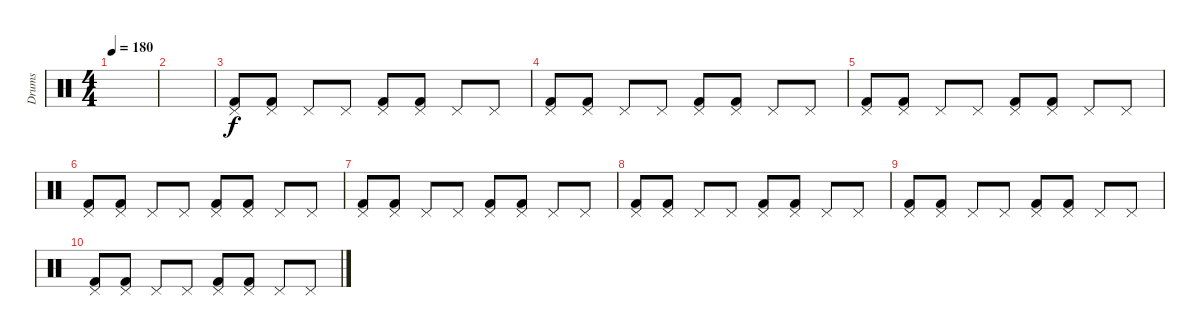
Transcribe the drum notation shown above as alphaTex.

\track ("Drums" "Drums") {instrument percussion}
\staff {score}
\articulation defaults
\ts (4 4)
\tempo 180
\clef neutral
\ks c
|
|
("Pedal Hi-Hat (hit)" "Kick (hit) 2").8 ("Pedal Hi-Hat (hit)" "Kick (hit) 2").8 "Pedal Hi-Hat (hit)".8 "Pedal Hi-Hat (hit)".8 ("Pedal Hi-Hat (hit)" "Kick (hit) 2").8 ("Pedal Hi-Hat (hit)" "Kick (hit) 2").8 "Pedal Hi-Hat (hit)".8 "Pedal Hi-Hat (hit)".8 |
("Pedal Hi-Hat (hit)" "Kick (hit) 2").8 ("Pedal Hi-Hat (hit)" "Kick (hit) 2").8 "Pedal Hi-Hat (hit)".8 "Pedal Hi-Hat (hit)".8 ("Pedal Hi-Hat (hit)" "Kick (hit) 2").8 ("Pedal Hi-Hat (hit)" "Kick (hit) 2").8 "Pedal Hi-Hat (hit)".8 "Pedal Hi-Hat (hit)".8 |
("Pedal Hi-Hat (hit)" "Kick (hit) 2").8 ("Pedal Hi-Hat (hit)" "Kick (hit) 2").8 "Pedal Hi-Hat (hit)".8 "Pedal Hi-Hat (hit)".8 ("Pedal Hi-Hat (hit)" "Kick (hit) 2").8 ("Pedal Hi-Hat (hit)" "Kick (hit) 2").8 "Pedal Hi-Hat (hit)".8 "Pedal Hi-Hat (hit)".8 |
("Pedal Hi-Hat (hit)" "Kick (hit) 2").8 ("Pedal Hi-Hat (hit)" "Kick (hit) 2").8 "Pedal Hi-Hat (hit)".8 "Pedal Hi-Hat (hit)".8 ("Pedal Hi-Hat (hit)" "Kick (hit) 2").8 ("Pedal Hi-Hat (hit)" "Kick (hit) 2").8 "Pedal Hi-Hat (hit)".8 "Pedal Hi-Hat (hit)".8 |
("Pedal Hi-Hat (hit)" "Kick (hit) 2").8 ("Pedal Hi-Hat (hit)" "Kick (hit) 2").8 "Pedal Hi-Hat (hit)".8 "Pedal Hi-Hat (hit)".8 ("Pedal Hi-Hat (hit)" "Kick (hit) 2").8 ("Pedal Hi-Hat (hit)" "Kick (hit) 2").8 "Pedal Hi-Hat (hit)".8 "Pedal Hi-Hat (hit)".8 |
("Pedal Hi-Hat (hit)" "Kick (hit) 2").8 ("Pedal Hi-Hat (hit)" "Kick (hit) 2").8 "Pedal Hi-Hat (hit)".8 "Pedal Hi-Hat (hit)".8 ("Pedal Hi-Hat (hit)" "Kick (hit) 2").8 ("Pedal Hi-Hat (hit)" "Kick (hit) 2").8 "Pedal Hi-Hat (hit)".8 "Pedal Hi-Hat (hit)".8 |
("Pedal Hi-Hat (hit)" "Kick (hit) 2").8 ("Pedal Hi-Hat (hit)" "Kick (hit) 2").8 "Pedal Hi-Hat (hit)".8 "Pedal Hi-Hat (hit)".8 ("Pedal Hi-Hat (hit)" "Kick (hit) 2").8 ("Pedal Hi-Hat (hit)" "Kick (hit) 2").8 "Pedal Hi-Hat (hit)".8 "Pedal Hi-Hat (hit)".8 |
("Pedal Hi-Hat (hit)" "Kick (hit) 2").8 ("Pedal Hi-Hat (hit)" "Kick (hit) 2").8 "Pedal Hi-Hat (hit)".8 "Pedal Hi-Hat (hit)".8 ("Pedal Hi-Hat (hit)" "Kick (hit) 2").8 ("Pedal Hi-Hat (hit)" "Kick (hit) 2").8 "Pedal Hi-Hat (hit)".8 "Pedal Hi-Hat (hit)".8
